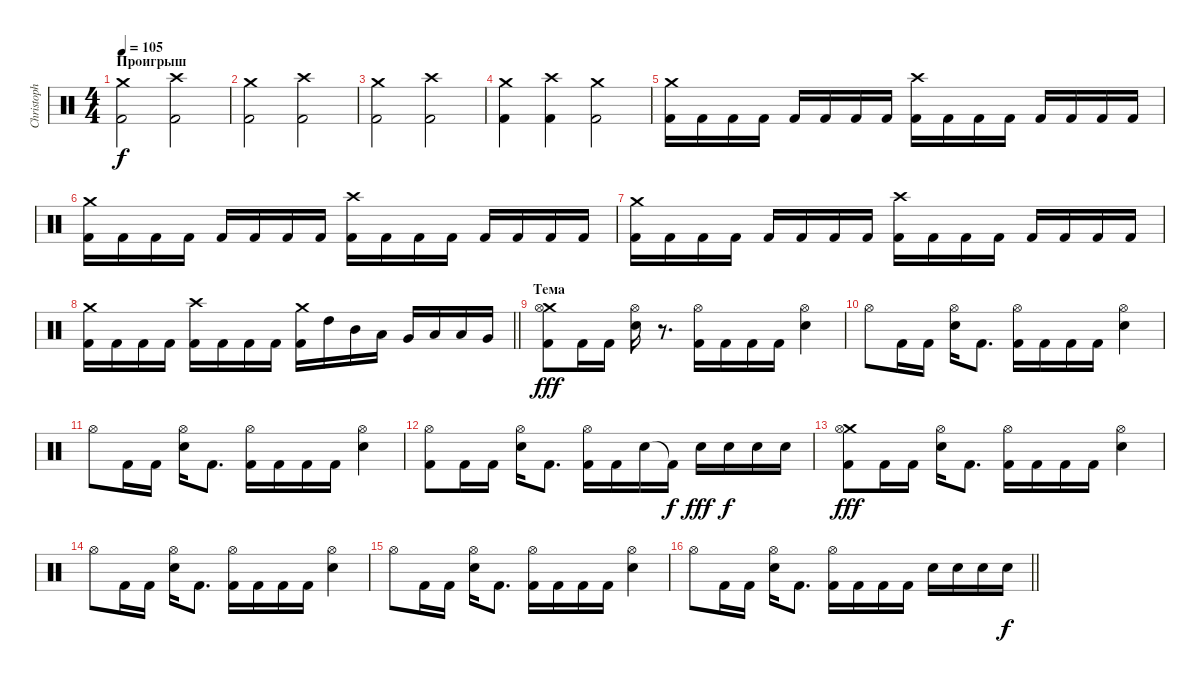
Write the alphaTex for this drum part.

\track ("Christoph Schneider" "Christoph ") {instrument percussion}
\staff {score}
\articulation defaults
\ts (4 4)
\section ("" "Проигрыш")
\tempo 105
\clef neutral
\ks c
("Crash medium (hit)" "Kick (hit) 2").2{dy f volume 16} ("Crash high (hit)" "Kick (hit) 2").2 |
("Crash medium (hit)" "Kick (hit) 2").2 ("Crash high (hit)" "Kick (hit) 2").2 |
("Crash medium (hit)" "Kick (hit) 2").2 ("Crash high (hit)" "Kick (hit) 2").2 |
("Crash medium (hit)" "Kick (hit) 2").4 ("Crash high (hit)" "Kick (hit) 2").4 ("Crash medium (hit)" "Kick (hit) 2").2 |
("Crash medium (hit)" "Kick (hit) 2").16 "Kick (hit) 2".16 "Kick (hit) 2".16 "Kick (hit) 2".16 "Kick (hit) 2".16 "Kick (hit) 2".16 "Kick (hit) 2".16 "Kick (hit) 2".16 ("Crash high (hit)" "Kick (hit) 2").16 "Kick (hit) 2".16 "Kick (hit) 2".16 "Kick (hit) 2".16 "Kick (hit) 2".16 "Kick (hit) 2".16 "Kick (hit) 2".16 "Kick (hit) 2".16 |
("Crash medium (hit)" "Kick (hit) 2").16 "Kick (hit) 2".16 "Kick (hit) 2".16 "Kick (hit) 2".16 "Kick (hit) 2".16 "Kick (hit) 2".16 "Kick (hit) 2".16 "Kick (hit) 2".16 ("Crash high (hit)" "Kick (hit) 2").16 "Kick (hit) 2".16 "Kick (hit) 2".16 "Kick (hit) 2".16 "Kick (hit) 2".16 "Kick (hit) 2".16 "Kick (hit) 2".16 "Kick (hit) 2".16 |
("Crash medium (hit)" "Kick (hit) 2").16 "Kick (hit) 2".16 "Kick (hit) 2".16 "Kick (hit) 2".16 "Kick (hit) 2".16 "Kick (hit) 2".16 "Kick (hit) 2".16 "Kick (hit) 2".16 ("Crash high (hit)" "Kick (hit) 2").16 "Kick (hit) 2".16 "Kick (hit) 2".16 "Kick (hit) 2".16 "Kick (hit) 2".16 "Kick (hit) 2".16 "Kick (hit) 2".16 "Kick (hit) 2".16 |
\barLineRight lightlight
("Crash medium (hit)" "Kick (hit) 2").16 "Kick (hit) 2".16 "Kick (hit) 2".16 "Kick (hit) 2".16 ("Crash high (hit)" "Kick (hit) 2").16 "Kick (hit) 2".16 "Kick (hit) 2".16 "Kick (hit) 2".16 ("Crash medium (hit)" "Kick (hit) 2").16 "High Tom (hit)".16 "Mid Tom (hit)".16 "Low Tom (hit)".16 "Very Low Tom (hit)".16 "Low Floor Tom (hit)".16 "Low Tom (hit)".16 "Very Low Tom (hit)".16 |
\section ("" "Тема")
("Crash medium (hit)" "Kick (hit) 2" "Hi-Hat (open)").8{dy fff} "Kick (hit) 2".16 "Kick (hit) 2".16 ("Hi-Hat (open)" "Electric Snare (hit)").16 r.8{d} ("Hi-Hat (open)" "Kick (hit) 2").16 "Kick (hit) 2".16 "Kick (hit) 2".16 "Kick (hit) 2".16 ("Hi-Hat (open)" "Electric Snare (hit)").4 |
"Hi-Hat (open)".8 "Kick (hit) 2".16 "Kick (hit) 2".16 ("Hi-Hat (open)" "Electric Snare (hit)").16 "Kick (hit) 2".8{d} ("Hi-Hat (open)" "Kick (hit) 2").16 "Kick (hit) 2".16 "Kick (hit) 2".16 "Kick (hit) 2".16 ("Hi-Hat (open)" "Electric Snare (hit)").4 |
"Hi-Hat (open)".8 "Kick (hit) 2".16 "Kick (hit) 2".16 ("Hi-Hat (open)" "Electric Snare (hit)").16 "Kick (hit) 2".8{d} ("Hi-Hat (open)" "Kick (hit) 2").16 "Kick (hit) 2".16 "Kick (hit) 2".16 "Kick (hit) 2".16 ("Hi-Hat (open)" "Electric Snare (hit)").4 |
("Kick (hit) 2" "Hi-Hat (open)").8 "Kick (hit) 2".16 "Kick (hit) 2".16 ("Hi-Hat (open)" "Electric Snare (hit)").16 "Kick (hit) 2".8{d} ("Hi-Hat (open)" "Kick (hit) 2").16 "Kick (hit) 2".16 "Electric Snare (hit)".16 "Kick (hit) 2"{t}.16{dy f} "Electric Snare (hit)".16{dy fff} "Electric Snare (hit)".16{dy f} "Electric Snare (hit)".16 "Electric Snare (hit)".16 |
("Crash medium (hit)" "Kick (hit) 2" "Hi-Hat (open)").8{dy fff} "Kick (hit) 2".16 "Kick (hit) 2".16 ("Hi-Hat (open)" "Electric Snare (hit)").16 "Kick (hit) 2".8{d} ("Hi-Hat (open)" "Kick (hit) 2").16 "Kick (hit) 2".16 "Kick (hit) 2".16 "Kick (hit) 2".16 ("Hi-Hat (open)" "Electric Snare (hit)").4 |
"Hi-Hat (open)".8 "Kick (hit) 2".16 "Kick (hit) 2".16 ("Hi-Hat (open)" "Electric Snare (hit)").16 "Kick (hit) 2".8{d} ("Hi-Hat (open)" "Kick (hit) 2").16 "Kick (hit) 2".16 "Kick (hit) 2".16 "Kick (hit) 2".16 ("Hi-Hat (open)" "Electric Snare (hit)").4 |
"Hi-Hat (open)".8 "Kick (hit) 2".16 "Kick (hit) 2".16 ("Hi-Hat (open)" "Electric Snare (hit)").16 "Kick (hit) 2".8{d} ("Hi-Hat (open)" "Kick (hit) 2").16 "Kick (hit) 2".16 "Kick (hit) 2".16 "Kick (hit) 2".16 ("Hi-Hat (open)" "Electric Snare (hit)").4 |
\barLineRight lightlight "Hi-Hat (open)".8 "Kick (hit) 2".16 "Kick (hit) 2".16
("Hi-Hat (open)" "Electric Snare (hit)").16 "Kick (hit) 2".8{d} ("Hi-Hat (open)" "Kick (hit) 2").16 "Kick (hit) 2".16 "Kick (hit) 2".16 "Kick (hit) 2".16 "Electric Snare (hit)".16 "Electric Snare (hit)".16 "Electric Snare (hit)".16 "Electric Snare (hit)".16{dy f}
